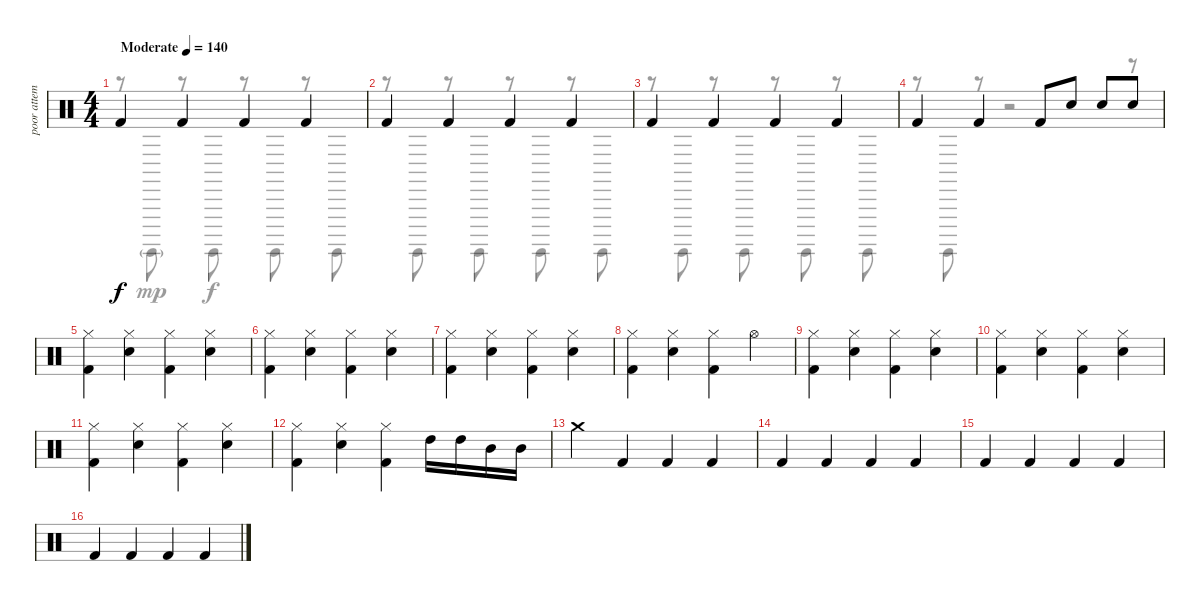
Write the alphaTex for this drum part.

\track ("poor attempt at zac's part" "poor attem") {instrument percussion}
\staff {score}
\articulation defaults
\voice
\ts (4 4)
\tempo (140 "Moderate")
\clef neutral
\ks c "Kick (hit) 2".4{dy f volume 2} "Kick (hit) 2".4{volume 3} "Kick (hit) 2".4{volume 3} "Kick (hit) 2".4{volume 4}
|
"Kick (hit) 2".4{volume 5} "Kick (hit) 2".4{volume 6} "Kick (hit) 2".4{volume 7} "Kick (hit) 2".4{volume 8} |
"Kick (hit) 2".4{volume 9} "Kick (hit) 2".4{volume 10} "Kick (hit) 2".4 "Kick (hit) 2".4 |
"Kick (hit) 2".4{volume 16 balance 16} "Kick (hit) 2".4 "Kick (hit) 2".8 "Snare (hit) 2".8 "Snare (hit) 2".8 "Snare (hit) 2".8 |
("Kick (hit) 2" "Hi-Hat (closed)").4 ("Snare (hit) 2" "Hi-Hat (closed)").4 ("Kick (hit) 2" "Hi-Hat (closed)").4 ("Snare (hit) 2" "Hi-Hat (closed)").4 |
("Kick (hit) 2" "Hi-Hat (closed)").4 ("Snare (hit) 2" "Hi-Hat (closed)").4 ("Kick (hit) 2" "Hi-Hat (closed)").4 ("Snare (hit) 2" "Hi-Hat (closed)").4 |
("Kick (hit) 2" "Hi-Hat (closed)").4 ("Snare (hit) 2" "Hi-Hat (closed)").4 ("Kick (hit) 2" "Hi-Hat (closed)").4 ("Snare (hit) 2" "Hi-Hat (closed)").4 |
("Kick (hit) 2" "Hi-Hat (closed)").4 ("Snare (hit) 2" "Hi-Hat (closed)").4 ("Kick (hit) 2" "Hi-Hat (closed)").4 "Hi-Hat (open)".4 |
("Kick (hit) 2" "Hi-Hat (closed)").4 ("Snare (hit) 2" "Hi-Hat (closed)").4 ("Kick (hit) 2" "Hi-Hat (closed)").4 ("Snare (hit) 2" "Hi-Hat (closed)").4 |
("Kick (hit) 2" "Hi-Hat (closed)").4 ("Snare (hit) 2" "Hi-Hat (closed)").4 ("Kick (hit) 2" "Hi-Hat (closed)").4 ("Snare (hit) 2" "Hi-Hat (closed)").4 |
("Kick (hit) 2" "Hi-Hat (closed)").4 ("Snare (hit) 2" "Hi-Hat (closed)").4 ("Kick (hit) 2" "Hi-Hat (closed)").4 ("Snare (hit) 2" "Hi-Hat (closed)").4 |
("Kick (hit) 2" "Hi-Hat (closed)").4 ("Snare (hit) 2" "Hi-Hat (closed)").4 ("Kick (hit) 2" "Hi-Hat (closed)").4 "High Tom (hit)".16 "High Tom (hit)".16 "Mid Tom (hit)".16 "Mid Tom (hit)".16 |
"Crash medium (hit)".4 "Kick (hit) 2".4 "Kick (hit) 2".4 "Kick (hit) 2".4 |
"Kick (hit) 2".4 "Kick (hit) 2".4 "Kick (hit) 2".4 "Kick (hit) 2".4 |
"Kick (hit) 2".4 "Kick (hit) 2".4 "Kick (hit) 2".4 "Kick (hit) 2".4 |
"Kick (hit) 2".4 "Kick (hit) 2".4 "Kick (hit) 2".4 "Kick (hit) 2".4
\voice
\clef neutral
\ottava regular
\simile none
\ks c
r.8{dy mp} "Surdo (hit)"{g}.8 r.8 "Surdo (hit)".8{dy f} r.8 "Surdo (hit)".8 r.8 "Surdo (hit)".8 |
r.8 "Surdo (hit)".8 r.8 "Surdo (hit)".8 r.8 "Surdo (hit)".8 r.8 "Surdo (hit)".8 |
r.8 "Surdo (hit)".8 r.8 "Surdo (hit)".8 r.8 "Surdo (hit)".8 r.8 "Surdo (hit)".8 |
r.8 "Surdo (hit)".8 r.8 r.2 r.8 |
|
|
|
|
|
|
|
|
|
|
|
